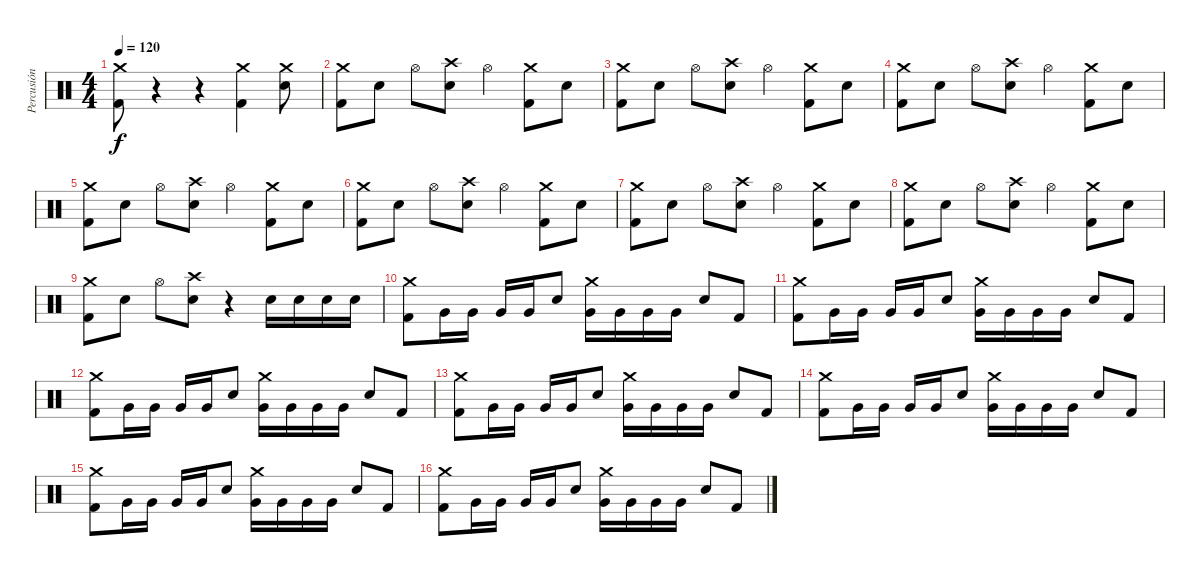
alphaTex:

\track ("Percusión" "Percusión") {instrument percussion}
\staff {score}
\articulation defaults
\ts (4 4)
\tempo 120
\clef neutral
\ks c
("Crash medium (hit)" "Kick (hit) 2").8{dy f} r.4 r.4 ("Crash medium (hit)" "Kick (hit) 2").4 ("Crash medium (hit)" "Snare (hit) 2").8 |
("Crash medium (hit)" "Kick (hit) 2").8 "Snare (hit) 2".8 "Hi-Hat (open)".8 ("Crash high (hit)" "Snare (hit) 2").8 "Hi-Hat (open)".4 ("Crash medium (hit)" "Kick (hit) 2").8 "Snare (hit) 2".8 |
("Crash medium (hit)" "Kick (hit) 2").8 "Snare (hit) 2".8 "Hi-Hat (open)".8 ("Crash high (hit)" "Snare (hit) 2").8 "Hi-Hat (open)".4 ("Crash medium (hit)" "Kick (hit) 2").8 "Snare (hit) 2".8 |
("Crash medium (hit)" "Kick (hit) 2").8 "Snare (hit) 2".8 "Hi-Hat (open)".8 ("Crash high (hit)" "Snare (hit) 2").8 "Hi-Hat (open)".4 ("Crash medium (hit)" "Kick (hit) 2").8 "Snare (hit) 2".8 |
("Crash medium (hit)" "Kick (hit) 2").8 "Snare (hit) 2".8 "Hi-Hat (open)".8 ("Crash high (hit)" "Snare (hit) 2").8 "Hi-Hat (open)".4 ("Crash medium (hit)" "Kick (hit) 2").8 "Snare (hit) 2".8 |
("Crash medium (hit)" "Kick (hit) 2").8 "Snare (hit) 2".8 "Hi-Hat (open)".8 ("Crash high (hit)" "Snare (hit) 2").8 "Hi-Hat (open)".4 ("Crash medium (hit)" "Kick (hit) 2").8 "Snare (hit) 2".8 |
("Crash medium (hit)" "Kick (hit) 2").8 "Snare (hit) 2".8 "Hi-Hat (open)".8 ("Crash high (hit)" "Snare (hit) 2").8 "Hi-Hat (open)".4 ("Crash medium (hit)" "Kick (hit) 2").8 "Snare (hit) 2".8 |
("Crash medium (hit)" "Kick (hit) 2").8 "Snare (hit) 2".8 "Hi-Hat (open)".8 ("Crash high (hit)" "Snare (hit) 2").8 "Hi-Hat (open)".4 ("Crash medium (hit)" "Kick (hit) 2").8 "Snare (hit) 2".8 |
("Crash medium (hit)" "Kick (hit) 2").8 "Snare (hit) 2".8 "Hi-Hat (open)".8 ("Crash high (hit)" "Snare (hit) 2").8 r.4 "Snare (hit) 2".16 "Snare (hit) 2".16 "Snare (hit) 2".16 "Snare (hit) 2".16 |
("Crash medium (hit)" "Kick (hit) 2").8 "Very Low Tom (hit)".16 "Very Low Tom (hit)".16 "Very Low Tom (hit)".16 "Very Low Tom (hit)".16 "Snare (hit) 2".8 ("Crash medium (hit)" "Very Low Tom (hit)").16 "Very Low Tom (hit)".16 "Very Low Tom (hit)".16 "Very Low Tom (hit)".16 "Snare (hit) 2".8 "Kick (hit) 2".8 |
("Crash medium (hit)" "Kick (hit) 2").8 "Very Low Tom (hit)".16 "Very Low Tom (hit)".16 "Very Low Tom (hit)".16 "Very Low Tom (hit)".16 "Snare (hit) 2".8 ("Crash medium (hit)" "Very Low Tom (hit)").16 "Very Low Tom (hit)".16 "Very Low Tom (hit)".16 "Very Low Tom (hit)".16 "Snare (hit) 2".8 "Kick (hit) 2".8 |
("Crash medium (hit)" "Kick (hit) 2").8 "Very Low Tom (hit)".16 "Very Low Tom (hit)".16 "Very Low Tom (hit)".16 "Very Low Tom (hit)".16 "Snare (hit) 2".8 ("Crash medium (hit)" "Very Low Tom (hit)").16 "Very Low Tom (hit)".16 "Very Low Tom (hit)".16 "Very Low Tom (hit)".16 "Snare (hit) 2".8 "Kick (hit) 2".8 |
("Crash medium (hit)" "Kick (hit) 2").8 "Very Low Tom (hit)".16 "Very Low Tom (hit)".16 "Very Low Tom (hit)".16 "Very Low Tom (hit)".16 "Snare (hit) 2".8 ("Crash medium (hit)" "Very Low Tom (hit)").16 "Very Low Tom (hit)".16 "Very Low Tom (hit)".16 "Very Low Tom (hit)".16 "Snare (hit) 2".8 "Kick (hit) 2".8 |
("Crash medium (hit)" "Kick (hit) 2").8 "Very Low Tom (hit)".16 "Very Low Tom (hit)".16 "Very Low Tom (hit)".16 "Very Low Tom (hit)".16 "Snare (hit) 2".8 ("Crash medium (hit)" "Very Low Tom (hit)").16 "Very Low Tom (hit)".16 "Very Low Tom (hit)".16 "Very Low Tom (hit)".16 "Snare (hit) 2".8 "Kick (hit) 2".8 |
("Crash medium (hit)" "Kick (hit) 2").8 "Very Low Tom (hit)".16 "Very Low Tom (hit)".16 "Very Low Tom (hit)".16 "Very Low Tom (hit)".16 "Snare (hit) 2".8 ("Crash medium (hit)" "Very Low Tom (hit)").16 "Very Low Tom (hit)".16 "Very Low Tom (hit)".16 "Very Low Tom (hit)".16 "Snare (hit) 2".8 "Kick (hit) 2".8 |
("Crash medium (hit)" "Kick (hit) 2").8 "Very Low Tom (hit)".16 "Very Low Tom (hit)".16 "Very Low Tom (hit)".16 "Very Low Tom (hit)".16 "Snare (hit) 2".8 ("Crash medium (hit)" "Very Low Tom (hit)").16 "Very Low Tom (hit)".16 "Very Low Tom (hit)".16 "Very Low Tom (hit)".16 "Snare (hit) 2".8 "Kick (hit) 2".8
